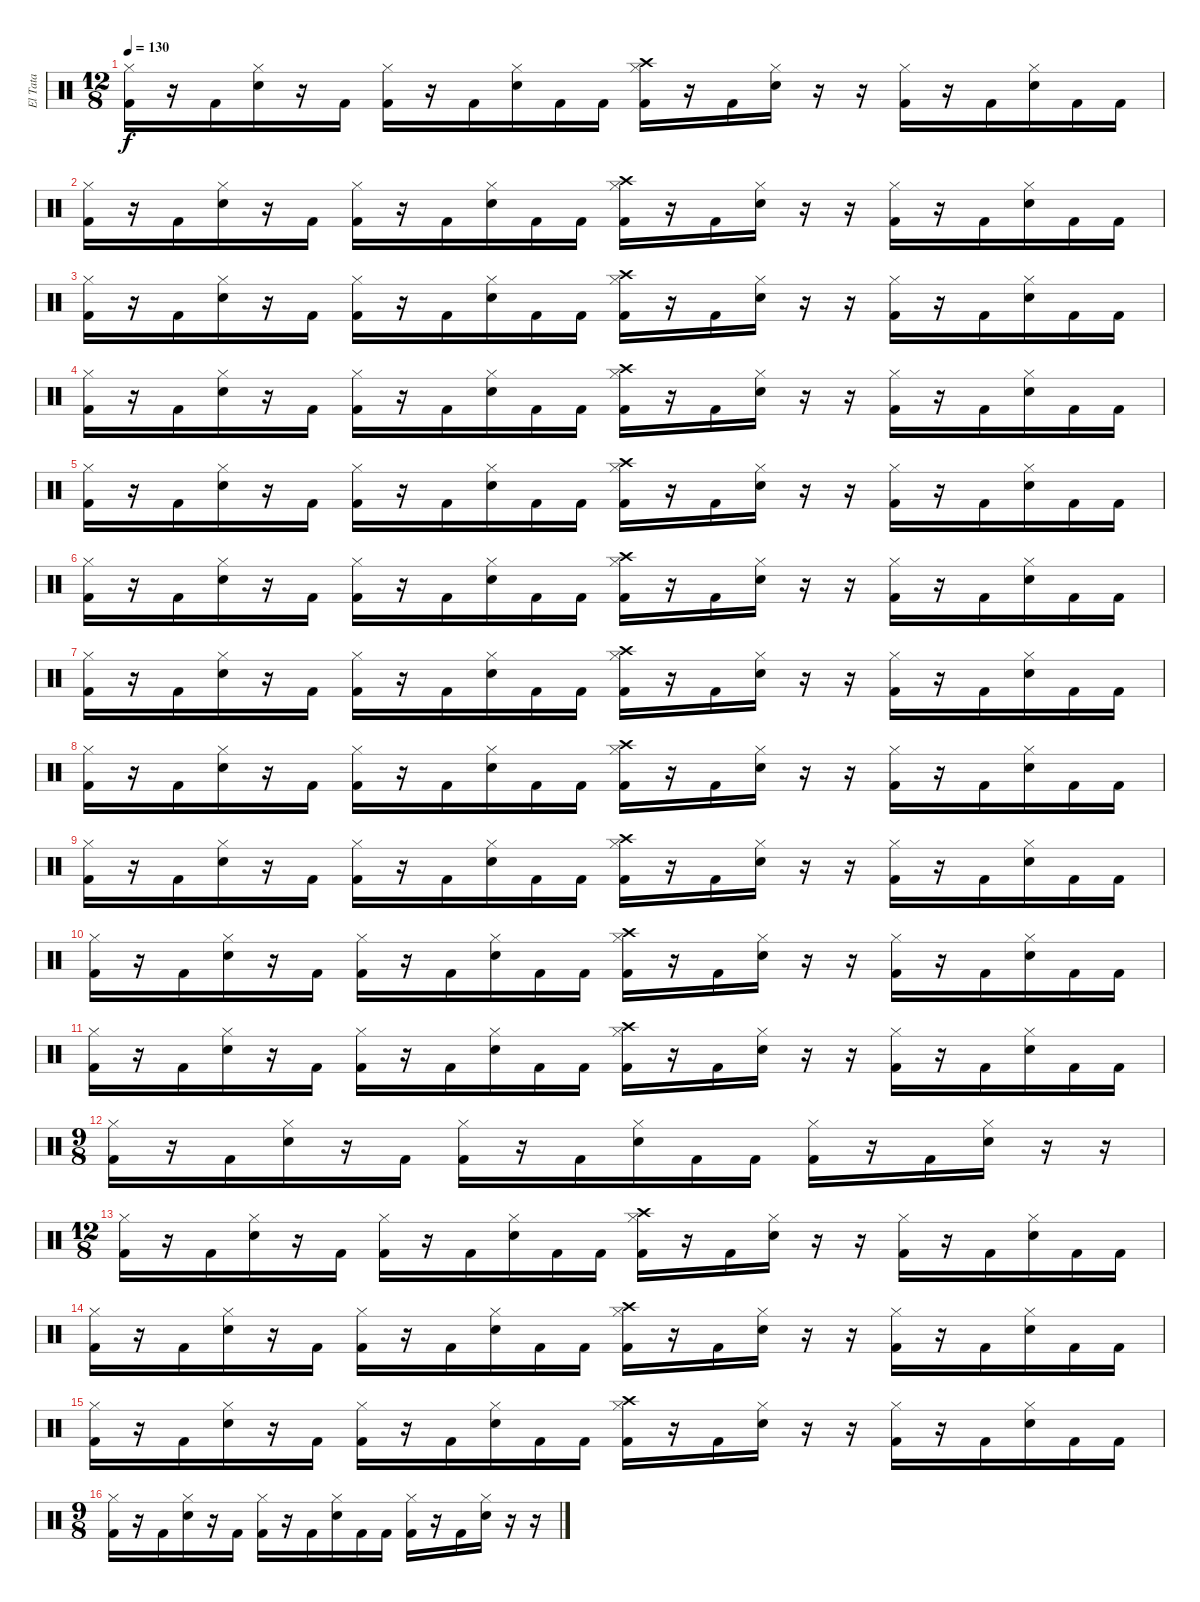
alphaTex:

\track ("El Tata" "El Tata") {instrument percussion}
\staff {score}
\articulation defaults
\ts (12 8)
\tempo 130
\clef neutral
\ks c
("Kick (hit) 2" "Hi-Hat (closed)").16{dy f} r.16 "Kick (hit) 2".16 ("Hi-Hat (closed)" "Electric Snare (hit)").16 r.16 "Kick (hit) 2".16 ("Kick (hit) 2" "Hi-Hat (closed)").16 r.16 "Kick (hit) 2".16 ("Hi-Hat (closed)" "Electric Snare (hit)").16 "Kick (hit) 2".16 "Kick (hit) 2".16 ("Kick (hit) 2" "Hi-Hat (closed)" "Crash high (hit)").16 r.16 "Kick (hit) 2".16 ("Hi-Hat (closed)" "Electric Snare (hit)").16 r.16 r.16 ("Kick (hit) 2" "Hi-Hat (closed)").16 r.16 "Kick (hit) 2".16 ("Hi-Hat (closed)" "Electric Snare (hit)").16 "Kick (hit) 2".16 "Kick (hit) 2".16 |
("Kick (hit) 2" "Hi-Hat (closed)").16 r.16 "Kick (hit) 2".16 ("Hi-Hat (closed)" "Electric Snare (hit)").16 r.16 "Kick (hit) 2".16 ("Kick (hit) 2" "Hi-Hat (closed)").16 r.16 "Kick (hit) 2".16 ("Hi-Hat (closed)" "Electric Snare (hit)").16 "Kick (hit) 2".16 "Kick (hit) 2".16 ("Kick (hit) 2" "Hi-Hat (closed)" "Crash high (hit)").16 r.16 "Kick (hit) 2".16 ("Hi-Hat (closed)" "Electric Snare (hit)").16 r.16 r.16 ("Kick (hit) 2" "Hi-Hat (closed)").16 r.16 "Kick (hit) 2".16 ("Hi-Hat (closed)" "Electric Snare (hit)").16 "Kick (hit) 2".16 "Kick (hit) 2".16 |
("Kick (hit) 2" "Hi-Hat (closed)").16 r.16 "Kick (hit) 2".16 ("Hi-Hat (closed)" "Electric Snare (hit)").16 r.16 "Kick (hit) 2".16 ("Kick (hit) 2" "Hi-Hat (closed)").16 r.16 "Kick (hit) 2".16 ("Hi-Hat (closed)" "Electric Snare (hit)").16 "Kick (hit) 2".16 "Kick (hit) 2".16 ("Kick (hit) 2" "Hi-Hat (closed)" "Crash high (hit)").16 r.16 "Kick (hit) 2".16 ("Hi-Hat (closed)" "Electric Snare (hit)").16 r.16 r.16 ("Kick (hit) 2" "Hi-Hat (closed)").16 r.16 "Kick (hit) 2".16 ("Hi-Hat (closed)" "Electric Snare (hit)").16 "Kick (hit) 2".16 "Kick (hit) 2".16 |
("Kick (hit) 2" "Hi-Hat (closed)").16 r.16 "Kick (hit) 2".16 ("Hi-Hat (closed)" "Electric Snare (hit)").16 r.16 "Kick (hit) 2".16 ("Kick (hit) 2" "Hi-Hat (closed)").16 r.16 "Kick (hit) 2".16 ("Hi-Hat (closed)" "Electric Snare (hit)").16 "Kick (hit) 2".16 "Kick (hit) 2".16 ("Kick (hit) 2" "Hi-Hat (closed)" "Crash high (hit)").16 r.16 "Kick (hit) 2".16 ("Hi-Hat (closed)" "Electric Snare (hit)").16 r.16 r.16 ("Kick (hit) 2" "Hi-Hat (closed)").16 r.16 "Kick (hit) 2".16 ("Hi-Hat (closed)" "Electric Snare (hit)").16 "Kick (hit) 2".16 "Kick (hit) 2".16 |
("Kick (hit) 2" "Hi-Hat (closed)").16 r.16 "Kick (hit) 2".16 ("Hi-Hat (closed)" "Electric Snare (hit)").16 r.16 "Kick (hit) 2".16 ("Kick (hit) 2" "Hi-Hat (closed)").16 r.16 "Kick (hit) 2".16 ("Hi-Hat (closed)" "Electric Snare (hit)").16 "Kick (hit) 2".16 "Kick (hit) 2".16 ("Kick (hit) 2" "Hi-Hat (closed)" "Crash high (hit)").16 r.16 "Kick (hit) 2".16 ("Hi-Hat (closed)" "Electric Snare (hit)").16 r.16 r.16 ("Kick (hit) 2" "Hi-Hat (closed)").16 r.16 "Kick (hit) 2".16 ("Hi-Hat (closed)" "Electric Snare (hit)").16 "Kick (hit) 2".16 "Kick (hit) 2".16 |
("Kick (hit) 2" "Hi-Hat (closed)").16 r.16 "Kick (hit) 2".16 ("Hi-Hat (closed)" "Electric Snare (hit)").16 r.16 "Kick (hit) 2".16 ("Kick (hit) 2" "Hi-Hat (closed)").16 r.16 "Kick (hit) 2".16 ("Hi-Hat (closed)" "Electric Snare (hit)").16 "Kick (hit) 2".16 "Kick (hit) 2".16 ("Kick (hit) 2" "Hi-Hat (closed)" "Crash high (hit)").16 r.16 "Kick (hit) 2".16 ("Hi-Hat (closed)" "Electric Snare (hit)").16 r.16 r.16 ("Kick (hit) 2" "Hi-Hat (closed)").16 r.16 "Kick (hit) 2".16 ("Hi-Hat (closed)" "Electric Snare (hit)").16 "Kick (hit) 2".16 "Kick (hit) 2".16 |
("Kick (hit) 2" "Hi-Hat (closed)").16 r.16 "Kick (hit) 2".16 ("Hi-Hat (closed)" "Electric Snare (hit)").16 r.16 "Kick (hit) 2".16 ("Kick (hit) 2" "Hi-Hat (closed)").16 r.16 "Kick (hit) 2".16 ("Hi-Hat (closed)" "Electric Snare (hit)").16 "Kick (hit) 2".16 "Kick (hit) 2".16 ("Kick (hit) 2" "Hi-Hat (closed)" "Crash high (hit)").16 r.16 "Kick (hit) 2".16 ("Hi-Hat (closed)" "Electric Snare (hit)").16 r.16 r.16 ("Kick (hit) 2" "Hi-Hat (closed)").16 r.16 "Kick (hit) 2".16 ("Hi-Hat (closed)" "Electric Snare (hit)").16 "Kick (hit) 2".16 "Kick (hit) 2".16 |
("Kick (hit) 2" "Hi-Hat (closed)").16 r.16 "Kick (hit) 2".16 ("Hi-Hat (closed)" "Electric Snare (hit)").16 r.16 "Kick (hit) 2".16 ("Kick (hit) 2" "Hi-Hat (closed)").16 r.16 "Kick (hit) 2".16 ("Hi-Hat (closed)" "Electric Snare (hit)").16 "Kick (hit) 2".16 "Kick (hit) 2".16 ("Kick (hit) 2" "Hi-Hat (closed)" "Crash high (hit)").16 r.16 "Kick (hit) 2".16 ("Hi-Hat (closed)" "Electric Snare (hit)").16 r.16 r.16 ("Kick (hit) 2" "Hi-Hat (closed)").16 r.16 "Kick (hit) 2".16 ("Hi-Hat (closed)" "Electric Snare (hit)").16 "Kick (hit) 2".16 "Kick (hit) 2".16 |
("Kick (hit) 2" "Hi-Hat (closed)").16 r.16 "Kick (hit) 2".16 ("Hi-Hat (closed)" "Electric Snare (hit)").16 r.16 "Kick (hit) 2".16 ("Kick (hit) 2" "Hi-Hat (closed)").16 r.16 "Kick (hit) 2".16 ("Hi-Hat (closed)" "Electric Snare (hit)").16 "Kick (hit) 2".16 "Kick (hit) 2".16 ("Kick (hit) 2" "Hi-Hat (closed)" "Crash high (hit)").16 r.16 "Kick (hit) 2".16 ("Hi-Hat (closed)" "Electric Snare (hit)").16 r.16 r.16 ("Kick (hit) 2" "Hi-Hat (closed)").16 r.16 "Kick (hit) 2".16 ("Hi-Hat (closed)" "Electric Snare (hit)").16 "Kick (hit) 2".16 "Kick (hit) 2".16 |
("Kick (hit) 2" "Hi-Hat (closed)").16 r.16 "Kick (hit) 2".16 ("Hi-Hat (closed)" "Electric Snare (hit)").16 r.16 "Kick (hit) 2".16 ("Kick (hit) 2" "Hi-Hat (closed)").16 r.16 "Kick (hit) 2".16 ("Hi-Hat (closed)" "Electric Snare (hit)").16 "Kick (hit) 2".16 "Kick (hit) 2".16 ("Kick (hit) 2" "Hi-Hat (closed)" "Crash high (hit)").16 r.16 "Kick (hit) 2".16 ("Hi-Hat (closed)" "Electric Snare (hit)").16 r.16 r.16 ("Kick (hit) 2" "Hi-Hat (closed)").16 r.16 "Kick (hit) 2".16 ("Hi-Hat (closed)" "Electric Snare (hit)").16 "Kick (hit) 2".16 "Kick (hit) 2".16 |
("Kick (hit) 2" "Hi-Hat (closed)").16 r.16 "Kick (hit) 2".16 ("Hi-Hat (closed)" "Electric Snare (hit)").16 r.16 "Kick (hit) 2".16 ("Kick (hit) 2" "Hi-Hat (closed)").16 r.16 "Kick (hit) 2".16 ("Hi-Hat (closed)" "Electric Snare (hit)").16 "Kick (hit) 2".16 "Kick (hit) 2".16 ("Kick (hit) 2" "Hi-Hat (closed)" "Crash high (hit)").16 r.16 "Kick (hit) 2".16 ("Hi-Hat (closed)" "Electric Snare (hit)").16 r.16 r.16 ("Kick (hit) 2" "Hi-Hat (closed)").16 r.16 "Kick (hit) 2".16 ("Hi-Hat (closed)" "Electric Snare (hit)").16 "Kick (hit) 2".16 "Kick (hit) 2".16 |
\ts (9 8)
("Hi-Hat (closed)" "Kick (hit) 2").16 r.16 "Kick (hit) 2".16 ("Hi-Hat (closed)" "Electric Snare (hit)").16 r.16 "Kick (hit) 2".16 ("Hi-Hat (closed)" "Kick (hit) 2").16 r.16 "Kick (hit) 2".16 ("Hi-Hat (closed)" "Electric Snare (hit)").16 "Kick (hit) 2".16 "Kick (hit) 2".16 ("Hi-Hat (closed)" "Kick (hit) 2").16 r.16 "Kick (hit) 2".16 ("Hi-Hat (closed)" "Electric Snare (hit)").16 r.16 r.16 |
\ts (12 8)
("Kick (hit) 2" "Hi-Hat (closed)").16 r.16 "Kick (hit) 2".16 ("Hi-Hat (closed)" "Electric Snare (hit)").16 r.16 "Kick (hit) 2".16 ("Kick (hit) 2" "Hi-Hat (closed)").16 r.16 "Kick (hit) 2".16 ("Hi-Hat (closed)" "Electric Snare (hit)").16 "Kick (hit) 2".16 "Kick (hit) 2".16 ("Kick (hit) 2" "Hi-Hat (closed)" "Crash high (hit)").16 r.16 "Kick (hit) 2".16 ("Hi-Hat (closed)" "Electric Snare (hit)").16 r.16 r.16 ("Kick (hit) 2" "Hi-Hat (closed)").16 r.16 "Kick (hit) 2".16 ("Hi-Hat (closed)" "Electric Snare (hit)").16 "Kick (hit) 2".16 "Kick (hit) 2".16 |
("Kick (hit) 2" "Hi-Hat (closed)").16 r.16 "Kick (hit) 2".16 ("Hi-Hat (closed)" "Electric Snare (hit)").16 r.16 "Kick (hit) 2".16 ("Kick (hit) 2" "Hi-Hat (closed)").16 r.16 "Kick (hit) 2".16 ("Hi-Hat (closed)" "Electric Snare (hit)").16 "Kick (hit) 2".16 "Kick (hit) 2".16 ("Kick (hit) 2" "Hi-Hat (closed)" "Crash high (hit)").16 r.16 "Kick (hit) 2".16 ("Hi-Hat (closed)" "Electric Snare (hit)").16 r.16 r.16 ("Kick (hit) 2" "Hi-Hat (closed)").16 r.16 "Kick (hit) 2".16 ("Hi-Hat (closed)" "Electric Snare (hit)").16 "Kick (hit) 2".16 "Kick (hit) 2".16 |
("Kick (hit) 2" "Hi-Hat (closed)").16 r.16 "Kick (hit) 2".16 ("Hi-Hat (closed)" "Electric Snare (hit)").16 r.16 "Kick (hit) 2".16 ("Kick (hit) 2" "Hi-Hat (closed)").16 r.16 "Kick (hit) 2".16 ("Hi-Hat (closed)" "Electric Snare (hit)").16 "Kick (hit) 2".16 "Kick (hit) 2".16 ("Kick (hit) 2" "Hi-Hat (closed)" "Crash high (hit)").16 r.16 "Kick (hit) 2".16 ("Hi-Hat (closed)" "Electric Snare (hit)").16 r.16 r.16 ("Kick (hit) 2" "Hi-Hat (closed)").16 r.16 "Kick (hit) 2".16 ("Hi-Hat (closed)" "Electric Snare (hit)").16 "Kick (hit) 2".16 "Kick (hit) 2".16 |
\ts (9 8)
("Hi-Hat (closed)" "Kick (hit) 2").16 r.16 "Kick (hit) 2".16 ("Hi-Hat (closed)" "Electric Snare (hit)").16 r.16 "Kick (hit) 2".16 ("Hi-Hat (closed)" "Kick (hit) 2").16 r.16 "Kick (hit) 2".16 ("Hi-Hat (closed)" "Electric Snare (hit)").16 "Kick (hit) 2".16 "Kick (hit) 2".16 ("Hi-Hat (closed)" "Kick (hit) 2").16 r.16 "Kick (hit) 2".16 ("Hi-Hat (closed)" "Electric Snare (hit)").16 r.16 r.16
